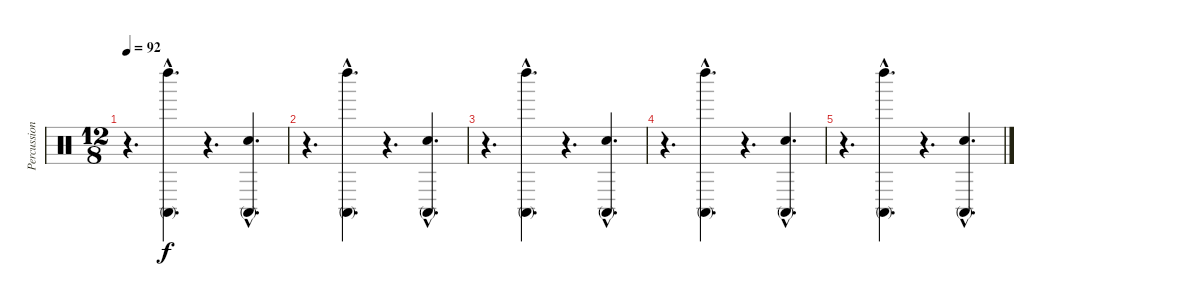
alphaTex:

\track ("Percussion" "Percussion") {instrument percussion}
\staff {score}
\articulation defaults
\ts (12 8)
\tempo 92
\clef neutral
\ks c
r.4{d dy f} ("Conga high (mute)"{hac} "Left Maraca (hit)"{hac}).4{d} r.4{d} ("Conga high (mute)"{hac} "Hand Clap (hit)"{hac}).4{d} |
r.4{d} ("Conga high (mute)"{hac} "Left Maraca (hit)"{hac}).4{d} r.4{d} ("Conga high (mute)"{hac} "Hand Clap (hit)"{hac}).4{d} |
r.4{d} ("Conga high (mute)"{hac} "Left Maraca (hit)"{hac}).4{d} r.4{d} ("Conga high (mute)"{hac} "Hand Clap (hit)"{hac}).4{d} |
r.4{d} ("Conga high (mute)"{hac} "Left Maraca (hit)"{hac}).4{d} r.4{d} ("Conga high (mute)"{hac} "Hand Clap (hit)"{hac}).4{d} |
r.4{d} ("Conga high (mute)"{hac} "Left Maraca (hit)"{hac}).4{d} r.4{d} ("Conga high (mute)"{hac} "Hand Clap (hit)"{hac}).4{d}
